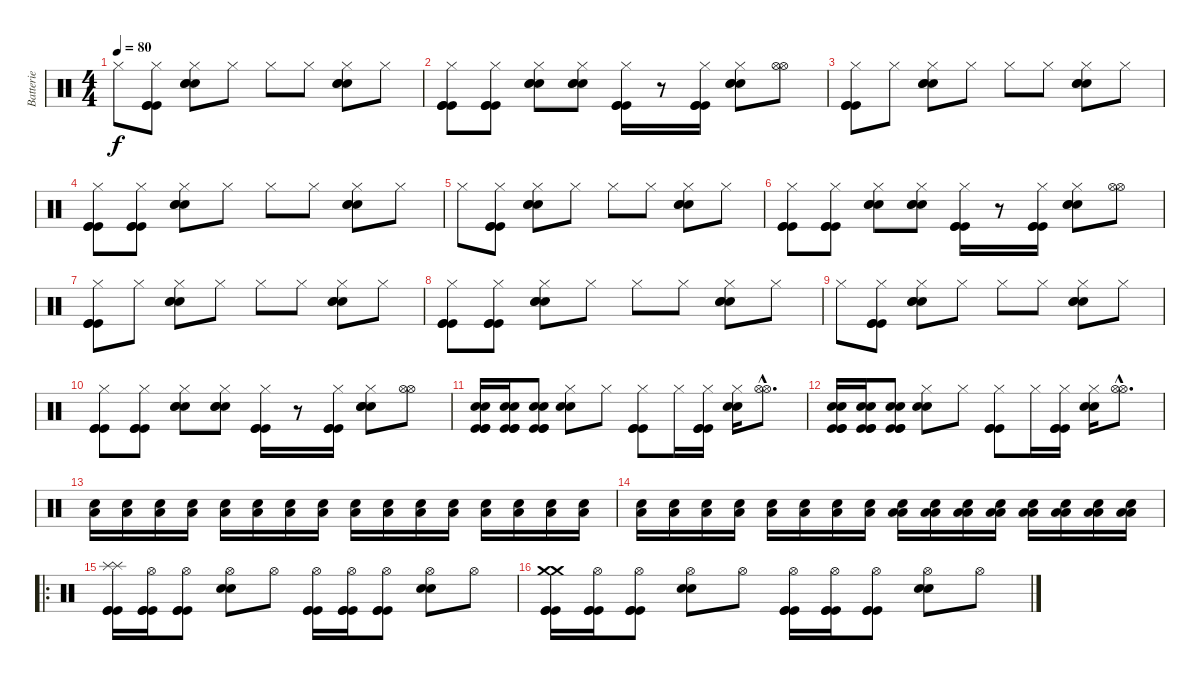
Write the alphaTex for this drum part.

\track ("Batterie" "Batterie") {instrument percussion}
\staff {score}
\articulation defaults
\ts (4 4)
\tempo 80
\clef neutral
\ks c "Hi-Hat (closed)".8{dy f}
("Hi-Hat (closed)" "Kick (hit)" "Kick (hit)" "Kick (hit)").8 ("Hi-Hat (closed)" "Snare (hit) 2" "Snare (hit) 2" "Snare (hit) 2").8 "Hi-Hat (closed)".8 "Hi-Hat (closed)".8 "Hi-Hat (closed)".8 ("Hi-Hat (closed)" "Snare (hit) 2" "Snare (hit) 2" "Snare (hit) 2").8 "Hi-Hat (closed)".8 |
("Hi-Hat (closed)" "Kick (hit)" "Kick (hit)" "Kick (hit)").8 ("Hi-Hat (closed)" "Kick (hit)" "Kick (hit)" "Kick (hit)").8 ("Hi-Hat (closed)" "Snare (hit) 2" "Snare (hit) 2" "Snare (hit) 2").8 ("Hi-Hat (closed)" "Snare (hit) 2" "Snare (hit) 2" "Snare (hit) 2").8 ("Hi-Hat (closed)" "Kick (hit)" "Kick (hit)" "Kick (hit)").16 r.8 ("Hi-Hat (closed)" "Kick (hit)" "Kick (hit)" "Kick (hit)").16 ("Hi-Hat (closed)" "Snare (hit) 2" "Snare (hit) 2" "Snare (hit) 2").8 ("Hi-Hat (open)" "Hi-Hat (open)").8 |
("Hi-Hat (closed)" "Kick (hit)" "Kick (hit)" "Kick (hit)").8 "Hi-Hat (closed)".8 ("Hi-Hat (closed)" "Snare (hit) 2" "Snare (hit) 2" "Snare (hit) 2").8 "Hi-Hat (closed)".8 "Hi-Hat (closed)".8 "Hi-Hat (closed)".8 ("Hi-Hat (closed)" "Snare (hit) 2" "Snare (hit) 2" "Snare (hit) 2").8 "Hi-Hat (closed)".8 |
("Hi-Hat (closed)" "Kick (hit)" "Kick (hit)" "Kick (hit)").8 ("Hi-Hat (closed)" "Kick (hit)" "Kick (hit)" "Kick (hit)").8 ("Hi-Hat (closed)" "Snare (hit) 2" "Snare (hit) 2" "Snare (hit) 2").8 "Hi-Hat (closed)".8 "Hi-Hat (closed)".8 "Hi-Hat (closed)".8 ("Hi-Hat (closed)" "Snare (hit) 2" "Snare (hit) 2" "Snare (hit) 2").8 "Hi-Hat (closed)".8 |
"Hi-Hat (closed)".8 ("Hi-Hat (closed)" "Kick (hit)" "Kick (hit)" "Kick (hit)").8 ("Hi-Hat (closed)" "Snare (hit) 2" "Snare (hit) 2" "Snare (hit) 2").8 "Hi-Hat (closed)".8 "Hi-Hat (closed)".8 "Hi-Hat (closed)".8 ("Hi-Hat (closed)" "Snare (hit) 2" "Snare (hit) 2" "Snare (hit) 2").8 "Hi-Hat (closed)".8 |
("Hi-Hat (closed)" "Kick (hit)" "Kick (hit)" "Kick (hit)").8 ("Hi-Hat (closed)" "Kick (hit)" "Kick (hit)" "Kick (hit)").8 ("Hi-Hat (closed)" "Snare (hit) 2" "Snare (hit) 2" "Snare (hit) 2").8 ("Hi-Hat (closed)" "Snare (hit) 2" "Snare (hit) 2" "Snare (hit) 2").8 ("Hi-Hat (closed)" "Kick (hit)" "Kick (hit)" "Kick (hit)").16 r.8 ("Hi-Hat (closed)" "Kick (hit)" "Kick (hit)" "Kick (hit)").16 ("Hi-Hat (closed)" "Snare (hit) 2" "Snare (hit) 2" "Snare (hit) 2").8 ("Hi-Hat (open)" "Hi-Hat (open)").8 |
("Hi-Hat (closed)" "Kick (hit)" "Kick (hit)" "Kick (hit)").8 "Hi-Hat (closed)".8 ("Hi-Hat (closed)" "Snare (hit) 2" "Snare (hit) 2" "Snare (hit) 2").8 "Hi-Hat (closed)".8 "Hi-Hat (closed)".8 "Hi-Hat (closed)".8 ("Hi-Hat (closed)" "Snare (hit) 2" "Snare (hit) 2" "Snare (hit) 2").8 "Hi-Hat (closed)".8 |
("Hi-Hat (closed)" "Kick (hit)" "Kick (hit)" "Kick (hit)").8 ("Hi-Hat (closed)" "Kick (hit)" "Kick (hit)" "Kick (hit)").8 ("Hi-Hat (closed)" "Snare (hit) 2" "Snare (hit) 2" "Snare (hit) 2").8 "Hi-Hat (closed)".8 "Hi-Hat (closed)".8 "Hi-Hat (closed)".8 ("Hi-Hat (closed)" "Snare (hit) 2" "Snare (hit) 2" "Snare (hit) 2").8 "Hi-Hat (closed)".8 |
"Hi-Hat (closed)".8 ("Hi-Hat (closed)" "Kick (hit)" "Kick (hit)" "Kick (hit)").8 ("Hi-Hat (closed)" "Snare (hit) 2" "Snare (hit) 2" "Snare (hit) 2").8 "Hi-Hat (closed)".8 "Hi-Hat (closed)".8 "Hi-Hat (closed)".8 ("Hi-Hat (closed)" "Snare (hit) 2" "Snare (hit) 2" "Snare (hit) 2").8 "Hi-Hat (closed)".8 |
("Hi-Hat (closed)" "Kick (hit)" "Kick (hit)" "Kick (hit)").8 ("Hi-Hat (closed)" "Kick (hit)" "Kick (hit)" "Kick (hit)").8 ("Hi-Hat (closed)" "Snare (hit) 2" "Snare (hit) 2" "Snare (hit) 2").8 ("Hi-Hat (closed)" "Snare (hit) 2" "Snare (hit) 2" "Snare (hit) 2").8 ("Hi-Hat (closed)" "Kick (hit)" "Kick (hit)" "Kick (hit)").16 r.8 ("Hi-Hat (closed)" "Kick (hit)" "Kick (hit)" "Kick (hit)").16 ("Hi-Hat (closed)" "Snare (hit) 2" "Snare (hit) 2" "Snare (hit) 2").8 ("Hi-Hat (open)" "Hi-Hat (open)").8 |
("Kick (hit)" "Snare (hit) 2" "Kick (hit)" "Snare (hit) 2" "Kick (hit)").16 ("Kick (hit)" "Snare (hit) 2" "Kick (hit)" "Snare (hit) 2" "Kick (hit)").16 ("Kick (hit)" "Snare (hit) 2" "Kick (hit)" "Snare (hit) 2" "Kick (hit)").8 ("Snare (hit) 2" "Hi-Hat (closed)" "Snare (hit) 2").8 "Hi-Hat (closed)".8 ("Kick (hit)" "Hi-Hat (closed)" "Kick (hit)" "Kick (hit)").8 "Hi-Hat (closed)".16 ("Kick (hit)" "Hi-Hat (closed)" "Kick (hit)" "Kick (hit)").16 ("Snare (hit) 2" "Hi-Hat (closed)" "Snare (hit) 2").16 ("Hi-Hat (open)"{hac} "Hi-Hat (open)"{hac}).8{d} |
("Kick (hit)" "Snare (hit) 2" "Kick (hit)" "Kick (hit)" "Snare (hit) 2").16 ("Kick (hit)" "Snare (hit) 2" "Kick (hit)" "Kick (hit)" "Snare (hit) 2").16 ("Kick (hit)" "Snare (hit) 2" "Kick (hit)" "Kick (hit)" "Snare (hit) 2").8 ("Snare (hit) 2" "Hi-Hat (closed)" "Snare (hit) 2").8 "Hi-Hat (closed)".8 ("Kick (hit)" "Hi-Hat (closed)" "Kick (hit)" "Kick (hit)").8 "Hi-Hat (closed)".16 ("Kick (hit)" "Hi-Hat (closed)" "Kick (hit)" "Kick (hit)").16 ("Snare (hit) 2" "Hi-Hat (closed)" "Snare (hit) 2").16 ("Hi-Hat (open)"{hac} "Hi-Hat (open)"{hac}).8{d} |
("Snare (hit) 2" "Low Floor Tom (hit)").16 ("Snare (hit) 2" "Low Floor Tom (hit)").16 ("Snare (hit) 2" "Low Floor Tom (hit)").16 ("Snare (hit) 2" "Low Floor Tom (hit)").16 ("Snare (hit) 2" "Low Floor Tom (hit)").16 ("Snare (hit) 2" "Low Floor Tom (hit)").16 ("Snare (hit) 2" "Low Floor Tom (hit)").16 ("Snare (hit) 2" "Low Floor Tom (hit)").16 ("Snare (hit) 2" "Low Floor Tom (hit)").16 ("Snare (hit) 2" "Low Floor Tom (hit)").16 ("Snare (hit) 2" "Low Floor Tom (hit)").16 ("Snare (hit) 2" "Low Floor Tom (hit)").16 ("Snare (hit) 2" "Low Floor Tom (hit)").16 ("Snare (hit) 2" "Low Floor Tom (hit)").16 ("Snare (hit) 2" "Low Floor Tom (hit)").16 ("Snare (hit) 2" "Low Floor Tom (hit)").16 |
("Snare (hit) 2" "Low Floor Tom (hit)").16 ("Snare (hit) 2" "Low Floor Tom (hit)").16 ("Snare (hit) 2" "Low Floor Tom (hit)").16 ("Snare (hit) 2" "Low Floor Tom (hit)").16 ("Snare (hit) 2" "Low Floor Tom (hit)").16 ("Snare (hit) 2" "Low Floor Tom (hit)").16 ("Snare (hit) 2" "Low Floor Tom (hit)").16 ("Snare (hit) 2" "Low Floor Tom (hit)").16 ("Snare (hit) 2" "Low Floor Tom (hit)" "Low Floor Tom (hit)").16 ("Snare (hit) 2" "Low Floor Tom (hit)" "Low Floor Tom (hit)").16 ("Snare (hit) 2" "Low Floor Tom (hit)" "Low Floor Tom (hit)").16 ("Snare (hit) 2" "Low Floor Tom (hit)" "Low Floor Tom (hit)").16 ("Snare (hit) 2" "Low Floor Tom (hit)" "Low Floor Tom (hit)").16 ("Snare (hit) 2" "Low Floor Tom (hit)" "Low Floor Tom (hit)").16 ("Snare (hit) 2" "Low Floor Tom (hit)" "Low Floor Tom (hit)").16 ("Snare (hit) 2" "Low Floor Tom (hit)" "Low Floor Tom (hit)").16 |
\ro
("Splash (hit)" "Kick (hit)" "Kick (hit)" "Kick (hit)" "Splash (hit)").16 ("Kick (hit)" "Kick (hit)" "Kick (hit)" "Hi-Hat (open)").16 ("Kick (hit)" "Kick (hit)" "Hi-Hat (open)" "Kick (hit)").8 ("Snare (hit) 2" "Snare (hit) 2" "Hi-Hat (open)").8 "Hi-Hat (open)".8 ("Kick (hit)" "Kick (hit)" "Hi-Hat (open)" "Kick (hit)").16 ("Kick (hit)" "Hi-Hat (open)" "Kick (hit)" "Kick (hit)").16 ("Kick (hit)" "Kick (hit)" "Hi-Hat (open)" "Kick (hit)").8 ("Snare (hit) 2" "Hi-Hat (open)" "Snare (hit) 2").8 "Hi-Hat (open)".8 |
("Crash medium (hit)" "Kick (hit)" "Kick (hit)" "Kick (hit)" "Crash medium (hit)").16 ("Kick (hit)" "Kick (hit)" "Kick (hit)" "Hi-Hat (open)").16 ("Kick (hit)" "Kick (hit)" "Hi-Hat (open)" "Kick (hit)").8 ("Snare (hit) 2" "Snare (hit) 2" "Hi-Hat (open)").8 "Hi-Hat (open)".8 ("Kick (hit)" "Kick (hit)" "Hi-Hat (open)" "Kick (hit)").16 ("Kick (hit)" "Kick (hit)" "Kick (hit)" "Hi-Hat (open)").16 ("Kick (hit)" "Kick (hit)" "Hi-Hat (open)" "Kick (hit)").8 ("Snare (hit) 2" "Snare (hit) 2" "Hi-Hat (open)").8 "Hi-Hat (open)".8
